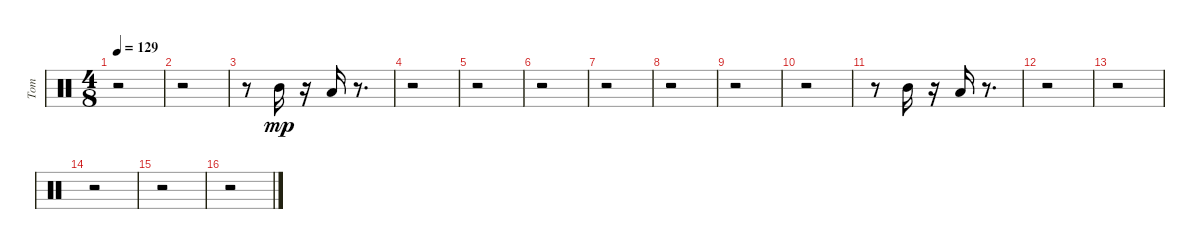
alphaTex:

\track ("Tom" "Tom") {instrument percussion}
\staff {score}
\articulation defaults
\ts (4 8)
\tempo 129
\clef neutral
\ks c
r.2{dy mp} |
r.2 |
r.8 "Mid Tom (hit)".16 r.16 "Low Tom (hit)".16 r.8{d} |
r.2 |
r.2 |
r.2 |
r.2 |
r.2 |
r.2 |
r.2 |
r.8 "Mid Tom (hit)".16 r.16 "Low Tom (hit)".16 r.8{d} |
r.2 |
r.2 |
r.2 |
r.2 |
r.2
